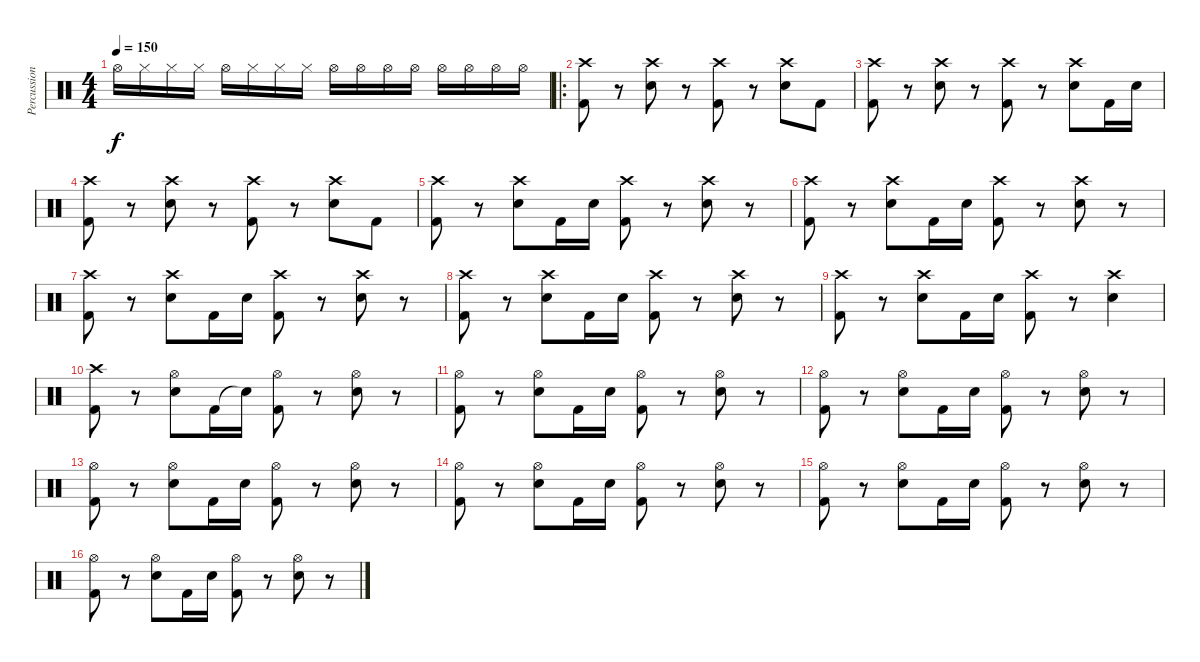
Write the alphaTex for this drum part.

\track ("Percussion" "Percussion") {instrument percussion}
\staff {score}
\articulation defaults
\ts (4 4)
\tempo 150
\clef neutral
\ks c "Hi-Hat (open)".16{dy f} "Hi-Hat (closed)".16 "Hi-Hat (closed)".16 "Hi-Hat (closed)".16 "Hi-Hat (open)".16 "Hi-Hat (closed)".16 "Hi-Hat (closed)".16 "Hi-Hat (closed)".16 "Hi-Hat (open)".16 "Hi-Hat (open)".16 "Hi-Hat (open)".16 "Hi-Hat (open)".16 "Hi-Hat (open)".16 "Hi-Hat (open)".16 "Hi-Hat (open)".16 "Hi-Hat (open)".16
|
\ro
("Crash high (hit)" "Kick (hit) 2").8 r.8 ("Crash high (hit)" "Electric Snare (hit)").8 r.8 ("Crash high (hit)" "Kick (hit) 2").8 r.8 ("Crash high (hit)" "Electric Snare (hit)").8 "Kick (hit) 2".8 |
("Crash high (hit)" "Kick (hit) 2").8 r.8 ("Crash high (hit)" "Electric Snare (hit)").8 r.8 ("Crash high (hit)" "Kick (hit) 2").8 r.8 ("Crash high (hit)" "Electric Snare (hit)").8 "Kick (hit) 2".16 "Electric Snare (hit)".16 |
("Crash high (hit)" "Kick (hit) 2").8 r.8 ("Crash high (hit)" "Electric Snare (hit)").8 r.8 ("Crash high (hit)" "Kick (hit) 2").8 r.8 ("Crash high (hit)" "Electric Snare (hit)").8 "Kick (hit) 2".8 |
("Crash high (hit)" "Kick (hit) 2").8 r.8 ("Crash high (hit)" "Electric Snare (hit)").8 "Kick (hit) 2".16 "Electric Snare (hit)".16 ("Crash high (hit)" "Kick (hit) 2").8 r.8 ("Crash high (hit)" "Electric Snare (hit)").8 r.8 |
("Crash high (hit)" "Kick (hit) 2").8 r.8 ("Crash high (hit)" "Electric Snare (hit)").8 "Kick (hit) 2".16 "Electric Snare (hit)".16 ("Crash high (hit)" "Kick (hit) 2").8 r.8 ("Crash high (hit)" "Electric Snare (hit)").8 r.8 |
("Crash high (hit)" "Kick (hit) 2").8 r.8 ("Crash high (hit)" "Electric Snare (hit)").8 "Kick (hit) 2".16 "Electric Snare (hit)".16 ("Crash high (hit)" "Kick (hit) 2").8 r.8 ("Crash high (hit)" "Electric Snare (hit)").8 r.8 |
("Crash high (hit)" "Kick (hit) 2").8 r.8 ("Crash high (hit)" "Electric Snare (hit)").8 "Kick (hit) 2".16 "Electric Snare (hit)".16 ("Crash high (hit)" "Kick (hit) 2").8 r.8 ("Crash high (hit)" "Electric Snare (hit)").8 r.8 |
("Crash high (hit)" "Kick (hit) 2").8 r.8 ("Crash high (hit)" "Electric Snare (hit)").8 "Kick (hit) 2".16 "Electric Snare (hit)".16 ("Crash high (hit)" "Kick (hit) 2").8 r.8 ("Crash high (hit)" "Electric Snare (hit)").4 |
("Crash high (hit)" "Kick (hit) 2").8 r.8 ("Hi-Hat (open)" "Electric Snare (hit)").8 "Kick (hit) 2".16 "Snare (hit)"{t}.16 ("Hi-Hat (open)" "Kick (hit) 2").8 r.8 ("Hi-Hat (open)" "Electric Snare (hit)").8 r.8 |
("Hi-Hat (open)" "Kick (hit) 2").8 r.8 ("Hi-Hat (open)" "Electric Snare (hit)").8 "Kick (hit) 2".16 "Electric Snare (hit)".16 ("Hi-Hat (open)" "Kick (hit) 2").8 r.8 ("Hi-Hat (open)" "Electric Snare (hit)").8 r.8 |
("Hi-Hat (open)" "Kick (hit) 2").8 r.8 ("Hi-Hat (open)" "Electric Snare (hit)").8 "Kick (hit) 2".16 "Electric Snare (hit)".16 ("Hi-Hat (open)" "Kick (hit) 2").8 r.8 ("Hi-Hat (open)" "Electric Snare (hit)").8 r.8 |
("Hi-Hat (open)" "Kick (hit) 2").8 r.8 ("Hi-Hat (open)" "Electric Snare (hit)").8 "Kick (hit) 2".16 "Electric Snare (hit)".16 ("Hi-Hat (open)" "Kick (hit) 2").8 r.8 ("Hi-Hat (open)" "Electric Snare (hit)").8 r.8 |
("Hi-Hat (open)" "Kick (hit) 2").8 r.8 ("Hi-Hat (open)" "Electric Snare (hit)").8 "Kick (hit) 2".16 "Electric Snare (hit)".16 ("Hi-Hat (open)" "Kick (hit) 2").8 r.8 ("Hi-Hat (open)" "Electric Snare (hit)").8 r.8 |
("Hi-Hat (open)" "Kick (hit) 2").8 r.8 ("Hi-Hat (open)" "Electric Snare (hit)").8 "Kick (hit) 2".16 "Electric Snare (hit)".16 ("Hi-Hat (open)" "Kick (hit) 2").8 r.8 ("Hi-Hat (open)" "Electric Snare (hit)").8 r.8 |
("Hi-Hat (open)" "Kick (hit) 2").8 r.8 ("Hi-Hat (open)" "Electric Snare (hit)").8 "Kick (hit) 2".16 "Electric Snare (hit)".16 ("Hi-Hat (open)" "Kick (hit) 2").8 r.8 ("Hi-Hat (open)" "Electric Snare (hit)").8 r.8
